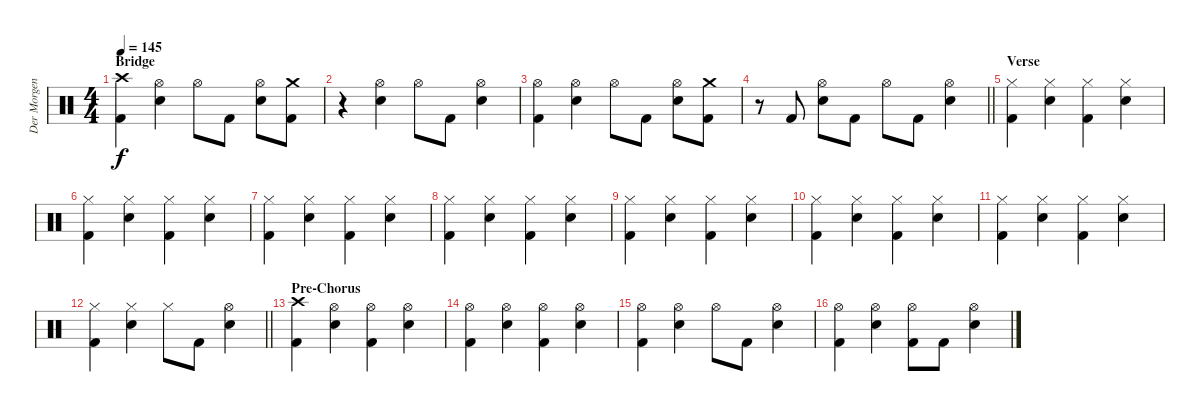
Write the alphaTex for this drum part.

\track ("Der Morgenstern" "Der Morgen") {instrument percussion}
\staff {score}
\articulation defaults
\ts (4 4)
\section ("" "Bridge")
\tempo 145
\clef neutral
\ks c
("Crash high (hit)" "Kick (hit) 2").4{dy f} ("Hi-Hat (open)" "Electric Snare (hit)").4 "Hi-Hat (open)".8 "Kick (hit) 2".8 ("Hi-Hat (open)" "Electric Snare (hit)").8 ("Crash medium (hit)" "Kick (hit) 2").8 |
r.4 ("Hi-Hat (open)" "Electric Snare (hit)").4 "Hi-Hat (open)".8 "Kick (hit) 2".8 ("Hi-Hat (open)" "Electric Snare (hit)").4 |
("Hi-Hat (open)" "Kick (hit) 2").4 ("Hi-Hat (open)" "Electric Snare (hit)").4 "Hi-Hat (open)".8 "Kick (hit) 2".8 ("Hi-Hat (open)" "Electric Snare (hit)").8 ("Crash medium (hit)" "Kick (hit) 2").8 |
\barLineRight lightlight
r.8 "Kick (hit) 2".8 ("Hi-Hat (open)" "Electric Snare (hit)").8 "Kick (hit) 2".8 "Hi-Hat (open)".8 "Kick (hit) 2".8 ("Hi-Hat (open)" "Electric Snare (hit)").4 |
\section ("" "Verse")
("Hi-Hat (closed)" "Kick (hit) 2").4 ("Hi-Hat (closed)" "Electric Snare (hit)").4 ("Hi-Hat (closed)" "Kick (hit) 2").4 ("Hi-Hat (closed)" "Electric Snare (hit)").4 |
("Hi-Hat (closed)" "Kick (hit) 2").4 ("Hi-Hat (closed)" "Electric Snare (hit)").4 ("Hi-Hat (closed)" "Kick (hit) 2").4 ("Hi-Hat (closed)" "Electric Snare (hit)").4 |
("Hi-Hat (closed)" "Kick (hit) 2").4 ("Hi-Hat (closed)" "Electric Snare (hit)").4 ("Hi-Hat (closed)" "Kick (hit) 2").4 ("Hi-Hat (closed)" "Electric Snare (hit)").4 |
("Hi-Hat (closed)" "Kick (hit) 2").4 ("Hi-Hat (closed)" "Electric Snare (hit)").4 ("Hi-Hat (closed)" "Kick (hit) 2").4 ("Hi-Hat (closed)" "Electric Snare (hit)").4 |
("Hi-Hat (closed)" "Kick (hit) 2").4 ("Hi-Hat (closed)" "Electric Snare (hit)").4 ("Hi-Hat (closed)" "Kick (hit) 2").4 ("Hi-Hat (closed)" "Electric Snare (hit)").4 |
("Hi-Hat (closed)" "Kick (hit) 2").4 ("Hi-Hat (closed)" "Electric Snare (hit)").4 ("Hi-Hat (closed)" "Kick (hit) 2").4 ("Hi-Hat (closed)" "Electric Snare (hit)").4 |
("Hi-Hat (closed)" "Kick (hit) 2").4 ("Hi-Hat (closed)" "Electric Snare (hit)").4 ("Hi-Hat (closed)" "Kick (hit) 2").4 ("Hi-Hat (closed)" "Electric Snare (hit)").4 |
\barLineRight lightlight
("Hi-Hat (closed)" "Kick (hit) 2").4 ("Hi-Hat (closed)" "Electric Snare (hit)").4 "Hi-Hat (closed)".8 "Kick (hit) 2".8 ("Hi-Hat (open)" "Electric Snare (hit)").4 |
\section ("" "Pre-Chorus")
("Crash high (hit)" "Kick (hit) 2").4 ("Hi-Hat (open)" "Electric Snare (hit)").4 ("Hi-Hat (open)" "Kick (hit) 2").4 ("Hi-Hat (open)" "Electric Snare (hit)").4 |
("Hi-Hat (open)" "Kick (hit) 2").4 ("Hi-Hat (open)" "Electric Snare (hit)").4 ("Hi-Hat (open)" "Kick (hit) 2").4 ("Hi-Hat (open)" "Electric Snare (hit)").4 |
("Hi-Hat (open)" "Kick (hit) 2").4 ("Hi-Hat (open)" "Electric Snare (hit)").4 "Hi-Hat (open)".8 "Kick (hit) 2".8 ("Hi-Hat (open)" "Electric Snare (hit)").4 |
("Hi-Hat (open)" "Kick (hit) 2").4 ("Hi-Hat (open)" "Electric Snare (hit)").4 ("Hi-Hat (open)" "Kick (hit) 2").8 "Kick (hit) 2".8 ("Hi-Hat (open)" "Electric Snare (hit)").4
